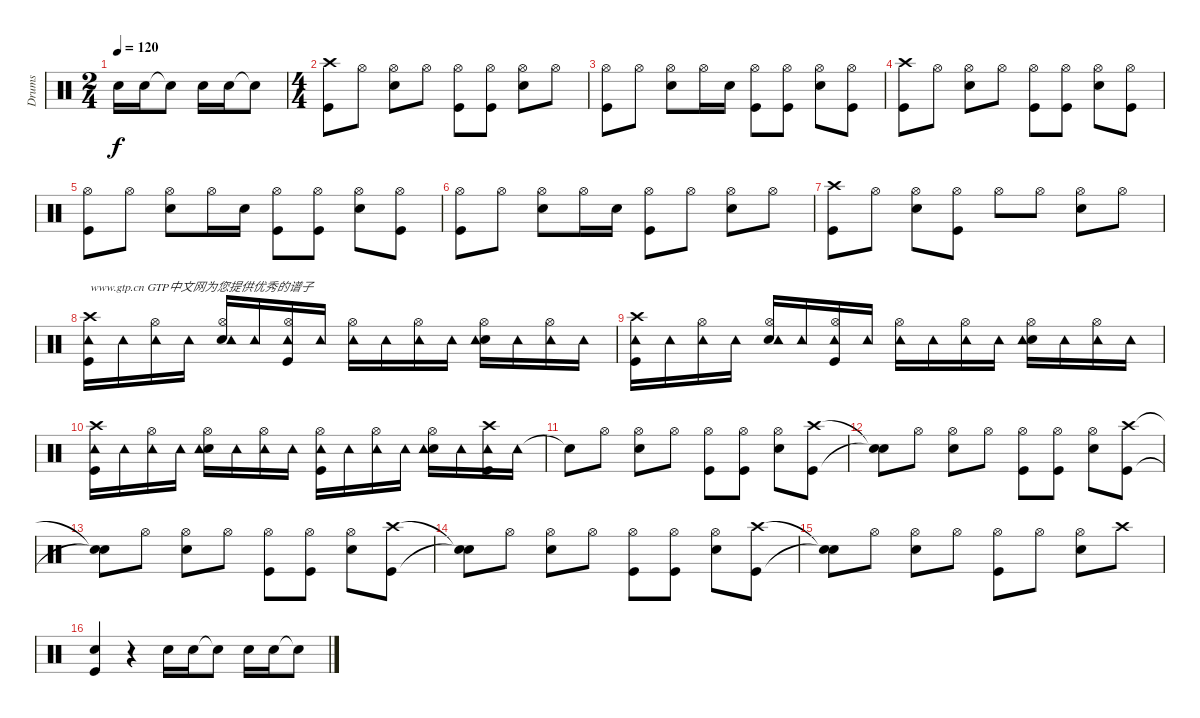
\track ("Drums" "Drums") {instrument percussion}
\staff {score}
\articulation defaults
\ts (2 4)
\tempo 120
\clef neutral
\ks c "Snare (hit) 2".16{dy f} "Snare (hit) 2".16 "Snare (hit)"{t}.8 "Snare (hit) 2".16 "Snare (hit) 2".16 "Snare (hit)"{t}.8
|
\ts (4 4)
("Crash high (hit)" "Kick (hit)").8 "Hi-Hat (open)".8 ("Hi-Hat (open)" "Snare (hit) 2").8 "Hi-Hat (open)".8 ("Hi-Hat (open)" "Kick (hit)").8 ("Hi-Hat (open)" "Kick (hit)").8 ("Hi-Hat (open)" "Snare (hit) 2").8 "Hi-Hat (open)".8 |
("Hi-Hat (open)" "Kick (hit)").8 "Hi-Hat (open)".8 ("Hi-Hat (open)" "Snare (hit) 2").8 "Hi-Hat (open)".16 "Snare (hit) 2".16 ("Hi-Hat (open)" "Kick (hit)").8 ("Hi-Hat (open)" "Kick (hit)").8 ("Hi-Hat (open)" "Snare (hit) 2").8 ("Hi-Hat (open)" "Kick (hit)").8 |
("Crash high (hit)" "Kick (hit)").8 "Hi-Hat (open)".8 ("Hi-Hat (open)" "Snare (hit) 2").8 "Hi-Hat (open)".8 ("Hi-Hat (open)" "Kick (hit)").8 ("Hi-Hat (open)" "Kick (hit)").8 ("Hi-Hat (open)" "Snare (hit) 2").8 ("Hi-Hat (open)" "Kick (hit)").8 |
("Hi-Hat (open)" "Kick (hit)").8 "Hi-Hat (open)".8 ("Hi-Hat (open)" "Snare (hit) 2").8 "Hi-Hat (open)".16 "Snare (hit) 2".16 ("Hi-Hat (open)" "Kick (hit)").8 ("Hi-Hat (open)" "Kick (hit)").8 ("Hi-Hat (open)" "Snare (hit) 2").8 ("Hi-Hat (open)" "Kick (hit)").8 |
("Hi-Hat (open)" "Kick (hit)").8 "Hi-Hat (open)".8 ("Hi-Hat (open)" "Snare (hit) 2").8 "Hi-Hat (open)".16 "Snare (hit) 2".16 ("Hi-Hat (open)" "Kick (hit)").8 "Hi-Hat (open)".8 ("Hi-Hat (open)" "Snare (hit) 2").8 "Hi-Hat (open)".8 |
("Crash high (hit)" "Kick (hit)").8 "Hi-Hat (open)".8 ("Hi-Hat (open)" "Snare (hit) 2").8 ("Hi-Hat (open)" "Kick (hit)").8 "Hi-Hat (open)".8 "Hi-Hat (open)".8 ("Hi-Hat (open)" "Snare (hit) 2").8 "Hi-Hat (open)".8 |
("Crash high (hit)" "Tambourine (hit)" "Kick (hit)").16{txt "www.gtp.cn GTP中文网为您提供优秀的谱子"} "Tambourine (hit)".16 ("Hi-Hat (open)" "Tambourine (hit)").16 "Tambourine (hit)".16 ("Hi-Hat (open)" "Snare (hit) 2" "Tambourine (hit)").16 "Tambourine (hit)".16 ("Hi-Hat (open)" "Tambourine (hit)" "Kick (hit)").16 "Tambourine (hit)".16 ("Hi-Hat (open)" "Tambourine (hit)").16 "Tambourine (hit)".16 ("Hi-Hat (open)" "Tambourine (hit)").16 "Tambourine (hit)".16 ("Hi-Hat (open)" "Snare (hit) 2" "Tambourine (hit)").16 "Tambourine (hit)".16 ("Hi-Hat (open)" "Tambourine (hit)").16 "Tambourine (hit)".16 |
("Crash high (hit)" "Tambourine (hit)" "Kick (hit)").16 "Tambourine (hit)".16 ("Hi-Hat (open)" "Tambourine (hit)").16 "Tambourine (hit)".16 ("Hi-Hat (open)" "Snare (hit) 2" "Tambourine (hit)").16 "Tambourine (hit)".16 ("Hi-Hat (open)" "Tambourine (hit)" "Kick (hit)").16 "Tambourine (hit)".16 ("Hi-Hat (open)" "Tambourine (hit)").16 "Tambourine (hit)".16 ("Hi-Hat (open)" "Tambourine (hit)").16 "Tambourine (hit)".16 ("Hi-Hat (open)" "Snare (hit) 2" "Tambourine (hit)").16 "Tambourine (hit)".16 ("Hi-Hat (open)" "Tambourine (hit)").16 "Tambourine (hit)".16 |
("Crash high (hit)" "Tambourine (hit)" "Kick (hit)").16 "Tambourine (hit)".16 ("Hi-Hat (open)" "Tambourine (hit)").16 "Tambourine (hit)".16 ("Hi-Hat (open)" "Snare (hit) 2" "Tambourine (hit)").16 "Tambourine (hit)".16 ("Hi-Hat (open)" "Tambourine (hit)").16 "Tambourine (hit)".16 ("Hi-Hat (open)" "Tambourine (hit)" "Kick (hit)").16 "Tambourine (hit)".16 ("Hi-Hat (open)" "Tambourine (hit)").16 "Tambourine (hit)".16 ("Hi-Hat (open)" "Snare (hit) 2" "Tambourine (hit)").16 "Tambourine (hit)".16 ("Crash high (hit)" "Tambourine (hit)" "Kick (hit)").16 "Tambourine (hit)".16 |
"Snare (hit)"{t}.8 "Hi-Hat (open)".8 ("Hi-Hat (open)" "Snare (hit) 2").8 "Hi-Hat (open)".8 ("Hi-Hat (open)" "Kick (hit)").8 ("Hi-Hat (open)" "Kick (hit)").8 ("Hi-Hat (open)" "Snare (hit) 2").8 ("Crash high (hit)" "Kick (hit)").8 |
("Snare (hit)"{t} "Snare (hit)"{t}).8 "Hi-Hat (open)".8 ("Hi-Hat (open)" "Snare (hit) 2").8 "Hi-Hat (open)".8 ("Hi-Hat (open)" "Kick (hit)").8 ("Hi-Hat (open)" "Kick (hit)").8 ("Hi-Hat (open)" "Snare (hit) 2").8 ("Crash high (hit)" "Kick (hit)").8 |
("Snare (hit)"{t} "Snare (hit)"{t}).8 "Hi-Hat (open)".8 ("Hi-Hat (open)" "Snare (hit) 2").8 "Hi-Hat (open)".8 ("Hi-Hat (open)" "Kick (hit)").8 ("Hi-Hat (open)" "Kick (hit)").8 ("Hi-Hat (open)" "Snare (hit) 2").8 ("Crash high (hit)" "Kick (hit)").8 |
("Snare (hit)"{t} "Snare (hit)"{t}).8 "Hi-Hat (open)".8 ("Hi-Hat (open)" "Snare (hit) 2").8 "Hi-Hat (open)".8 ("Hi-Hat (open)" "Kick (hit)").8 ("Hi-Hat (open)" "Kick (hit)").8 ("Hi-Hat (open)" "Snare (hit) 2").8 ("Crash high (hit)" "Kick (hit)").8 |
("Snare (hit)"{t} "Snare (hit)"{t}).8 "Hi-Hat (open)".8 ("Hi-Hat (open)" "Snare (hit) 2").8 "Hi-Hat (open)".8 ("Hi-Hat (open)" "Kick (hit)").8 "Hi-Hat (open)".8 ("Hi-Hat (open)" "Snare (hit) 2").8 "Crash high (hit)".8 |
("Snare (hit) 2" "Kick (hit)").4 r.4 "Snare (hit) 2".16 "Snare (hit) 2".16 "Snare (hit)"{t}.8 "Snare (hit) 2".16 "Snare (hit) 2".16 "Snare (hit)"{t}.8
